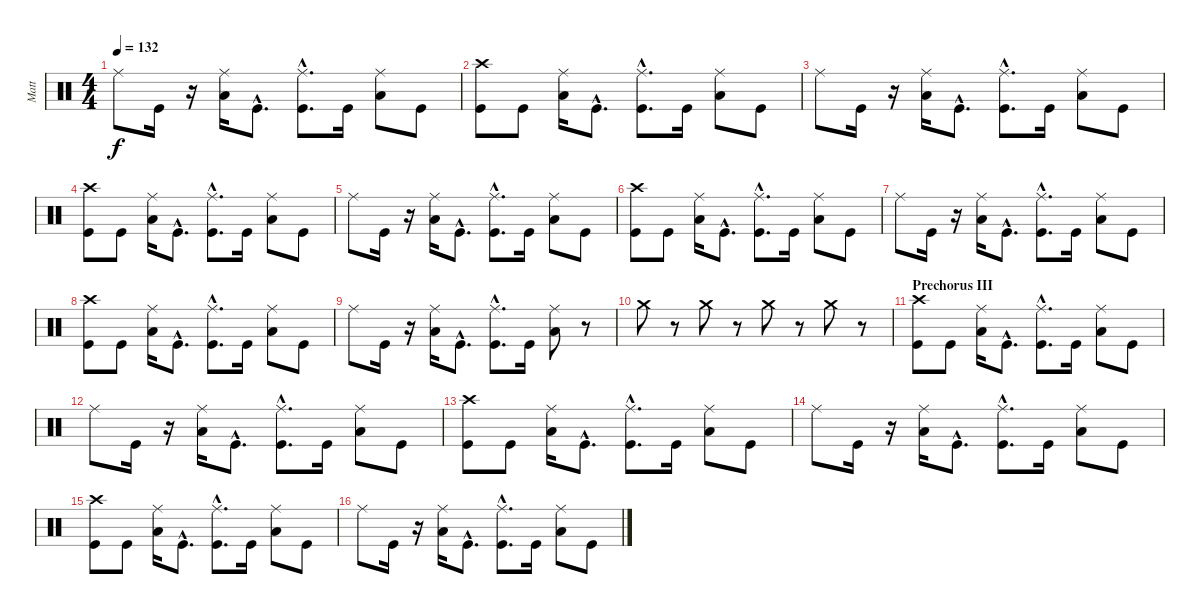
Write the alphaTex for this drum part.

\track ("Matt" "Matt") {instrument percussion}
\staff {score}
\articulation defaults
\ts (4 4)
\tempo 132
\clef neutral
\ks c "Ride (middle)".8{dy f} "Kick (hit)".16
r.16 ("Ride (middle)" "Low Tom (hit)").16 "Kick (hit)"{hac}.8{d} ("Kick (hit)"{hac} "Ride (middle)").8{d} "Kick (hit)".16 ("Low Tom (hit)" "Ride (middle)").8 "Kick (hit)".8 |
("Kick (hit)" "Crash high (hit)").8 "Kick (hit)".8 ("Ride (middle)" "Low Tom (hit)").16 "Kick (hit)"{hac}.8{d} ("Kick (hit)"{hac} "Ride (middle)").8{d} "Kick (hit)".16 ("Low Tom (hit)" "Ride (middle)").8 "Kick (hit)".8 |
"Ride (middle)".8 "Kick (hit)".16 r.16 ("Ride (middle)" "Low Tom (hit)").16 "Kick (hit)"{hac}.8{d} ("Ride (middle)" "Kick (hit)"{hac}).8{d} "Kick (hit)".16 ("Ride (middle)" "Low Tom (hit)").8 "Kick (hit)".8 |
("Crash high (hit)" "Kick (hit)").8 "Kick (hit)".8 ("Ride (middle)" "Low Tom (hit)").16 "Kick (hit)"{hac}.8{d} ("Kick (hit)"{hac} "Ride (middle)").8{d} "Kick (hit)".16 ("Ride (middle)" "Low Tom (hit)").8 "Kick (hit)".8 |
"Ride (middle)".8 "Kick (hit)".16 r.16 ("Low Tom (hit)" "Ride (middle)").16 "Kick (hit)"{hac}.8{d} ("Ride (middle)" "Kick (hit)"{hac}).8{d} "Kick (hit)".16 ("Ride (middle)" "Low Tom (hit)").8 "Kick (hit)".8 |
("Crash high (hit)" "Kick (hit)").8 "Kick (hit)".8 ("Ride (middle)" "Low Tom (hit)").16 "Kick (hit)"{hac}.8{d} ("Ride (middle)" "Kick (hit)"{hac}).8{d} "Kick (hit)".16 ("Low Tom (hit)" "Ride (middle)").8 "Kick (hit)".8 |
"Ride (middle)".8 "Kick (hit)".16 r.16 ("Low Tom (hit)" "Ride (middle)").16 "Kick (hit)"{hac}.8{d} ("Kick (hit)"{hac} "Ride (middle)").8{d} "Kick (hit)".16 ("Ride (middle)" "Low Tom (hit)").8 "Kick (hit)".8 |
("Crash high (hit)" "Kick (hit)").8 "Kick (hit)".8 ("Ride (middle)" "Low Tom (hit)").16 "Kick (hit)"{hac}.8{d} ("Ride (middle)" "Kick (hit)"{hac}).8{d} "Kick (hit)".16 ("Low Tom (hit)" "Ride (middle)").8 "Kick (hit)".8 |
"Ride (middle)".8 "Kick (hit)".16 r.16 ("Ride (middle)" "Low Tom (hit)").16 "Kick (hit)"{hac}.8{d} ("Kick (hit)"{hac} "Ride (middle)").8{d} "Kick (hit)".16 ("Low Tom (hit)" "Ride (middle)").8 r.8 |
"Crash medium (hit)".8 r.8 "Crash medium (hit)".8 r.8 "Crash medium (hit)".8 r.8 "Crash medium (hit)".8 r.8 |
\section ("" "Prechorus III")
("Kick (hit)" "Crash high (hit)").8 "Kick (hit)".8 ("Low Tom (hit)" "Ride (middle)").16 "Kick (hit)"{hac}.8{d} ("Kick (hit)"{hac} "Ride (middle)").8{d} "Kick (hit)".16 ("Low Tom (hit)" "Ride (middle)").8 "Kick (hit)".8 |
"Ride (middle)".8 "Kick (hit)".16 r.16 ("Ride (middle)" "Low Tom (hit)").16 "Kick (hit)"{hac}.8{d} ("Kick (hit)"{hac} "Ride (middle)").8{d} "Kick (hit)".16 ("Ride (middle)" "Low Tom (hit)").8 "Kick (hit)".8 |
("Kick (hit)" "Crash high (hit)").8 "Kick (hit)".8 ("Low Tom (hit)" "Ride (middle)").16 "Kick (hit)"{hac}.8{d} ("Ride (middle)" "Kick (hit)"{hac}).8{d} "Kick (hit)".16 ("Ride (middle)" "Low Tom (hit)").8 "Kick (hit)".8 |
"Ride (middle)".8 "Kick (hit)".16 r.16 ("Ride (middle)" "Low Tom (hit)").16 "Kick (hit)"{hac}.8{d} ("Kick (hit)"{hac} "Ride (middle)").8{d} "Kick (hit)".16 ("Ride (middle)" "Low Tom (hit)").8 "Kick (hit)".8 |
("Crash high (hit)" "Kick (hit)").8 "Kick (hit)".8 ("Low Tom (hit)" "Ride (middle)").16 "Kick (hit)"{hac}.8{d} ("Ride (middle)" "Kick (hit)"{hac}).8{d} "Kick (hit)".16 ("Ride (middle)" "Low Tom (hit)").8 "Kick (hit)".8 |
"Ride (middle)".8 "Kick (hit)".16 r.16 ("Low Tom (hit)" "Ride (middle)").16 "Kick (hit)"{hac}.8{d} ("Kick (hit)"{hac} "Ride (middle)").8{d} "Kick (hit)".16 ("Low Tom (hit)" "Ride (middle)").8 "Kick (hit)".8
